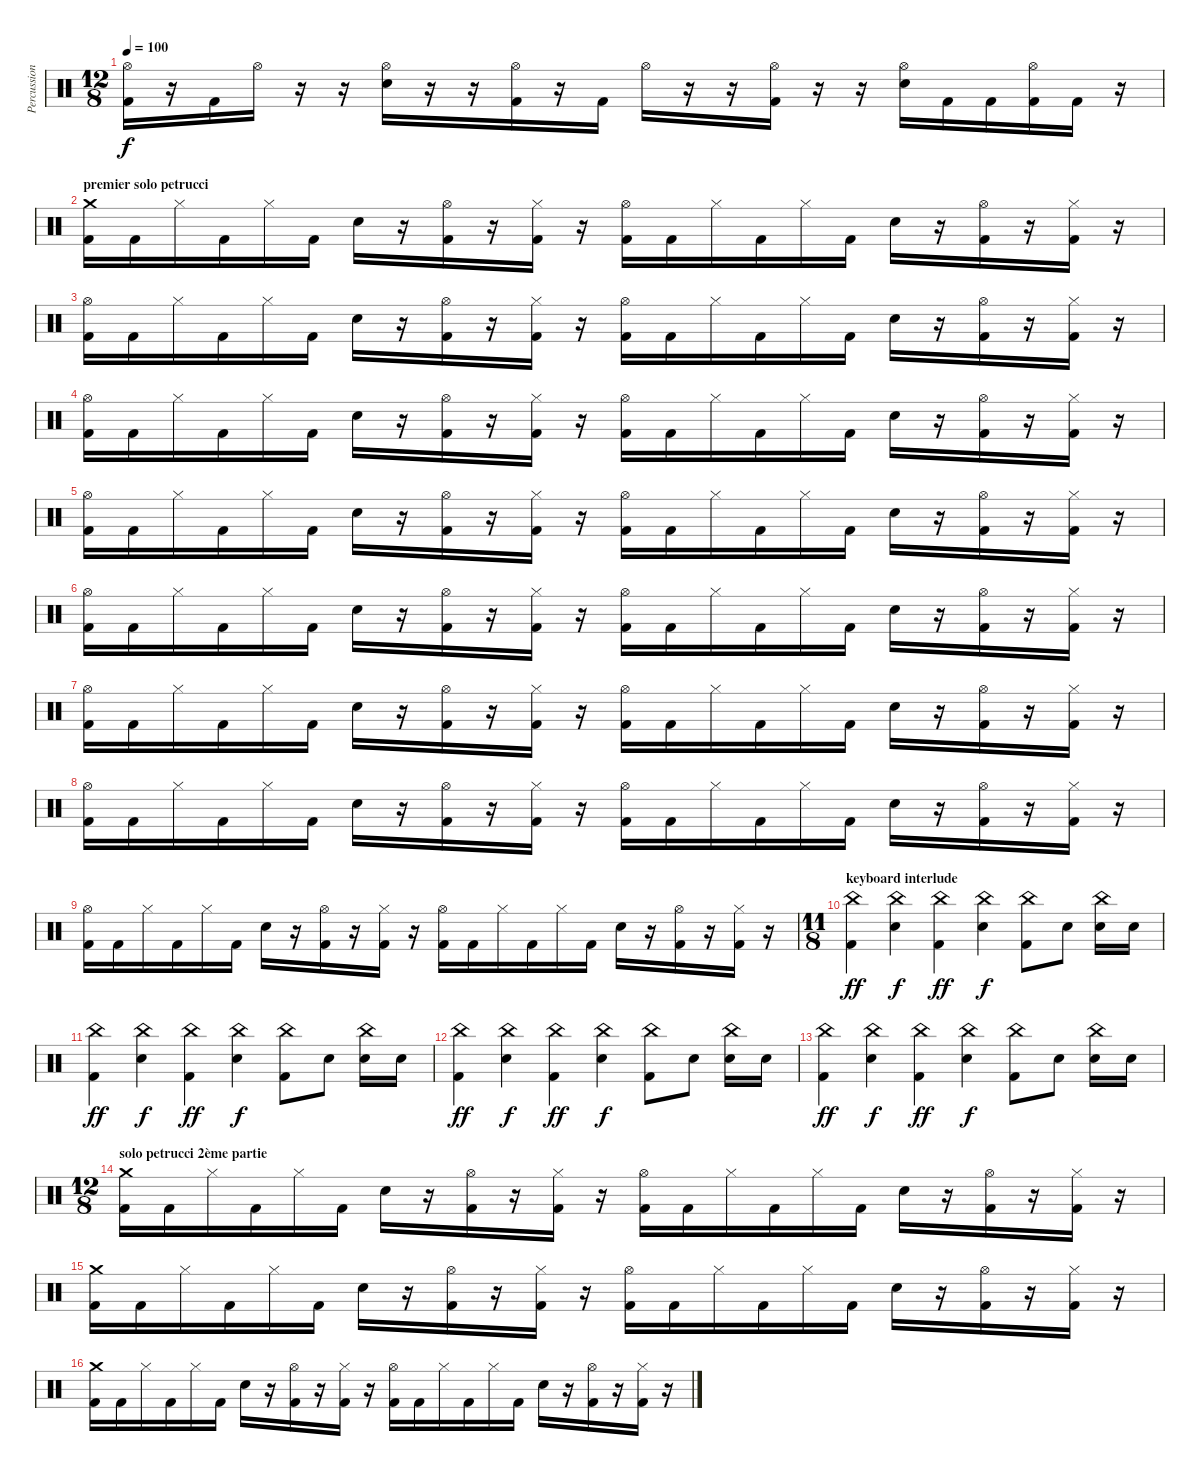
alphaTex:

\track ("Percussions" "Percussion") {instrument percussion}
\staff {score}
\articulation defaults
\ts (12 8)
\tempo 100
\clef neutral
\ks c
("Hi-Hat (open)" "Kick (hit) 2").16{dy f} r.16 "Kick (hit) 2".16 "Hi-Hat (open)".16 r.16 r.16 ("Hi-Hat (open)" "Electric Snare (hit)").16 r.16 r.16 ("Hi-Hat (open)" "Kick (hit) 2").16 r.16 "Kick (hit) 2".16 "Hi-Hat (open)".16 r.16 r.16 ("Hi-Hat (open)" "Kick (hit) 2").16 r.16 r.16 ("Hi-Hat (open)" "Electric Snare (hit)").16 "Kick (hit) 2".16 "Kick (hit) 2".16 ("Hi-Hat (open)" "Kick (hit) 2").16 "Kick (hit) 2".16 r.16 |
\section ("" "premier solo petrucci")
("Crash medium (hit)" "Kick (hit) 2").16 "Kick (hit) 2".16 "Hi-Hat (closed)".16 "Kick (hit) 2".16 "Hi-Hat (closed)".16 "Kick (hit) 2".16 "Electric Snare (hit)".16 r.16 ("Hi-Hat (open)" "Kick (hit) 2").16 r.16 ("Hi-Hat (closed)" "Kick (hit) 2").16 r.16 ("Hi-Hat (open)" "Kick (hit) 2").16 "Kick (hit) 2".16 "Hi-Hat (closed)".16 "Kick (hit) 2".16 "Hi-Hat (closed)".16 "Kick (hit) 2".16 "Electric Snare (hit)".16 r.16 ("Hi-Hat (open)" "Kick (hit) 2").16 r.16 ("Hi-Hat (closed)" "Kick (hit) 2").16 r.16 |
("Hi-Hat (open)" "Kick (hit) 2").16 "Kick (hit) 2".16 "Hi-Hat (closed)".16 "Kick (hit) 2".16 "Hi-Hat (closed)".16 "Kick (hit) 2".16 "Electric Snare (hit)".16 r.16 ("Hi-Hat (open)" "Kick (hit) 2").16 r.16 ("Hi-Hat (closed)" "Kick (hit) 2").16 r.16 ("Hi-Hat (open)" "Kick (hit) 2").16 "Kick (hit) 2".16 "Hi-Hat (closed)".16 "Kick (hit) 2".16 "Hi-Hat (closed)".16 "Kick (hit) 2".16 "Electric Snare (hit)".16 r.16 ("Hi-Hat (open)" "Kick (hit) 2").16 r.16 ("Hi-Hat (closed)" "Kick (hit) 2").16 r.16 |
("Hi-Hat (open)" "Kick (hit) 2").16 "Kick (hit) 2".16 "Hi-Hat (closed)".16 "Kick (hit) 2".16 "Hi-Hat (closed)".16 "Kick (hit) 2".16 "Electric Snare (hit)".16 r.16 ("Hi-Hat (open)" "Kick (hit) 2").16 r.16 ("Hi-Hat (closed)" "Kick (hit) 2").16 r.16 ("Hi-Hat (open)" "Kick (hit) 2").16 "Kick (hit) 2".16 "Hi-Hat (closed)".16 "Kick (hit) 2".16 "Hi-Hat (closed)".16 "Kick (hit) 2".16 "Electric Snare (hit)".16 r.16 ("Hi-Hat (open)" "Kick (hit) 2").16 r.16 ("Hi-Hat (closed)" "Kick (hit) 2").16 r.16 |
("Hi-Hat (open)" "Kick (hit) 2").16 "Kick (hit) 2".16 "Hi-Hat (closed)".16 "Kick (hit) 2".16 "Hi-Hat (closed)".16 "Kick (hit) 2".16 "Electric Snare (hit)".16 r.16 ("Hi-Hat (open)" "Kick (hit) 2").16 r.16 ("Hi-Hat (closed)" "Kick (hit) 2").16 r.16 ("Hi-Hat (open)" "Kick (hit) 2").16 "Kick (hit) 2".16 "Hi-Hat (closed)".16 "Kick (hit) 2".16 "Hi-Hat (closed)".16 "Kick (hit) 2".16 "Electric Snare (hit)".16 r.16 ("Hi-Hat (open)" "Kick (hit) 2").16 r.16 ("Hi-Hat (closed)" "Kick (hit) 2").16 r.16 |
("Hi-Hat (open)" "Kick (hit) 2").16 "Kick (hit) 2".16 "Hi-Hat (closed)".16 "Kick (hit) 2".16 "Hi-Hat (closed)".16 "Kick (hit) 2".16 "Electric Snare (hit)".16 r.16 ("Hi-Hat (open)" "Kick (hit) 2").16 r.16 ("Hi-Hat (closed)" "Kick (hit) 2").16 r.16 ("Hi-Hat (open)" "Kick (hit) 2").16 "Kick (hit) 2".16 "Hi-Hat (closed)".16 "Kick (hit) 2".16 "Hi-Hat (closed)".16 "Kick (hit) 2".16 "Electric Snare (hit)".16 r.16 ("Hi-Hat (open)" "Kick (hit) 2").16 r.16 ("Hi-Hat (closed)" "Kick (hit) 2").16 r.16 |
("Hi-Hat (open)" "Kick (hit) 2").16 "Kick (hit) 2".16 "Hi-Hat (closed)".16 "Kick (hit) 2".16 "Hi-Hat (closed)".16 "Kick (hit) 2".16 "Electric Snare (hit)".16 r.16 ("Hi-Hat (open)" "Kick (hit) 2").16 r.16 ("Hi-Hat (closed)" "Kick (hit) 2").16 r.16 ("Hi-Hat (open)" "Kick (hit) 2").16 "Kick (hit) 2".16 "Hi-Hat (closed)".16 "Kick (hit) 2".16 "Hi-Hat (closed)".16 "Kick (hit) 2".16 "Electric Snare (hit)".16 r.16 ("Hi-Hat (open)" "Kick (hit) 2").16 r.16 ("Hi-Hat (closed)" "Kick (hit) 2").16 r.16 |
("Hi-Hat (open)" "Kick (hit) 2").16 "Kick (hit) 2".16 "Hi-Hat (closed)".16 "Kick (hit) 2".16 "Hi-Hat (closed)".16 "Kick (hit) 2".16 "Electric Snare (hit)".16 r.16 ("Hi-Hat (open)" "Kick (hit) 2").16 r.16 ("Hi-Hat (closed)" "Kick (hit) 2").16 r.16 ("Hi-Hat (open)" "Kick (hit) 2").16 "Kick (hit) 2".16 "Hi-Hat (closed)".16 "Kick (hit) 2".16 "Hi-Hat (closed)".16 "Kick (hit) 2".16 "Electric Snare (hit)".16 r.16 ("Hi-Hat (open)" "Kick (hit) 2").16 r.16 ("Hi-Hat (closed)" "Kick (hit) 2").16 r.16 |
("Hi-Hat (open)" "Kick (hit) 2").16 "Kick (hit) 2".16 "Hi-Hat (closed)".16 "Kick (hit) 2".16 "Hi-Hat (closed)".16 "Kick (hit) 2".16 "Electric Snare (hit)".16 r.16 ("Hi-Hat (open)" "Kick (hit) 2").16 r.16 ("Hi-Hat (closed)" "Kick (hit) 2").16 r.16 ("Hi-Hat (open)" "Kick (hit) 2").16 "Kick (hit) 2".16 "Hi-Hat (closed)".16 "Kick (hit) 2".16 "Hi-Hat (closed)".16 "Kick (hit) 2".16 "Electric Snare (hit)".16 r.16 ("Hi-Hat (open)" "Kick (hit) 2").16 r.16 ("Hi-Hat (closed)" "Kick (hit) 2").16 r.16 |
\ts (11 8)
\section ("" "keyboard interlude")
("China (hit)" "Kick (hit) 2").4{dy ff} ("China (hit)" "Electric Snare (hit)").4{dy f} ("China (hit)" "Kick (hit) 2").4{dy ff} ("China (hit)" "Electric Snare (hit)").4{dy f} ("China (hit)" "Kick (hit) 2").8 "Electric Snare (hit)".8 ("China (hit)" "Electric Snare (hit)").16 "Electric Snare (hit)".16 |
("China (hit)" "Kick (hit) 2").4{dy ff} ("China (hit)" "Electric Snare (hit)").4{dy f} ("China (hit)" "Kick (hit) 2").4{dy ff} ("China (hit)" "Electric Snare (hit)").4{dy f} ("China (hit)" "Kick (hit) 2").8 "Electric Snare (hit)".8 ("China (hit)" "Electric Snare (hit)").16 "Electric Snare (hit)".16 |
("China (hit)" "Kick (hit) 2").4{dy ff} ("China (hit)" "Electric Snare (hit)").4{dy f} ("China (hit)" "Kick (hit) 2").4{dy ff} ("China (hit)" "Electric Snare (hit)").4{dy f} ("China (hit)" "Kick (hit) 2").8 "Electric Snare (hit)".8 ("China (hit)" "Electric Snare (hit)").16 "Electric Snare (hit)".16 |
("China (hit)" "Kick (hit) 2").4{dy ff} ("China (hit)" "Electric Snare (hit)").4{dy f} ("China (hit)" "Kick (hit) 2").4{dy ff} ("China (hit)" "Electric Snare (hit)").4{dy f} ("China (hit)" "Kick (hit) 2").8 "Electric Snare (hit)".8 ("China (hit)" "Electric Snare (hit)").16 "Electric Snare (hit)".16 |
\ts (12 8)
\section ("" "solo petrucci 2ème partie")
("Crash medium (hit)" "Kick (hit) 2").16 "Kick (hit) 2".16 "Hi-Hat (closed)".16 "Kick (hit) 2".16 "Hi-Hat (closed)".16 "Kick (hit) 2".16 "Electric Snare (hit)".16 r.16 ("Hi-Hat (open)" "Kick (hit) 2").16 r.16 ("Hi-Hat (closed)" "Kick (hit) 2").16 r.16 ("Hi-Hat (open)" "Kick (hit) 2").16 "Kick (hit) 2".16 "Hi-Hat (closed)".16 "Kick (hit) 2".16 "Hi-Hat (closed)".16 "Kick (hit) 2".16 "Electric Snare (hit)".16 r.16 ("Hi-Hat (open)" "Kick (hit) 2").16 r.16 ("Hi-Hat (closed)" "Kick (hit) 2").16 r.16 |
("Crash medium (hit)" "Kick (hit) 2").16 "Kick (hit) 2".16 "Hi-Hat (closed)".16 "Kick (hit) 2".16 "Hi-Hat (closed)".16 "Kick (hit) 2".16 "Electric Snare (hit)".16 r.16 ("Hi-Hat (open)" "Kick (hit) 2").16 r.16 ("Hi-Hat (closed)" "Kick (hit) 2").16 r.16 ("Hi-Hat (open)" "Kick (hit) 2").16 "Kick (hit) 2".16 "Hi-Hat (closed)".16 "Kick (hit) 2".16 "Hi-Hat (closed)".16 "Kick (hit) 2".16 "Electric Snare (hit)".16 r.16 ("Hi-Hat (open)" "Kick (hit) 2").16 r.16 ("Hi-Hat (closed)" "Kick (hit) 2").16 r.16 |
("Crash medium (hit)" "Kick (hit) 2").16 "Kick (hit) 2".16 "Hi-Hat (closed)".16 "Kick (hit) 2".16 "Hi-Hat (closed)".16 "Kick (hit) 2".16 "Electric Snare (hit)".16 r.16 ("Hi-Hat (open)" "Kick (hit) 2").16 r.16 ("Hi-Hat (closed)" "Kick (hit) 2").16 r.16 ("Hi-Hat (open)" "Kick (hit) 2").16 "Kick (hit) 2".16 "Hi-Hat (closed)".16 "Kick (hit) 2".16 "Hi-Hat (closed)".16 "Kick (hit) 2".16 "Electric Snare (hit)".16 r.16 ("Hi-Hat (open)" "Kick (hit) 2").16 r.16 ("Hi-Hat (closed)" "Kick (hit) 2").16 r.16
